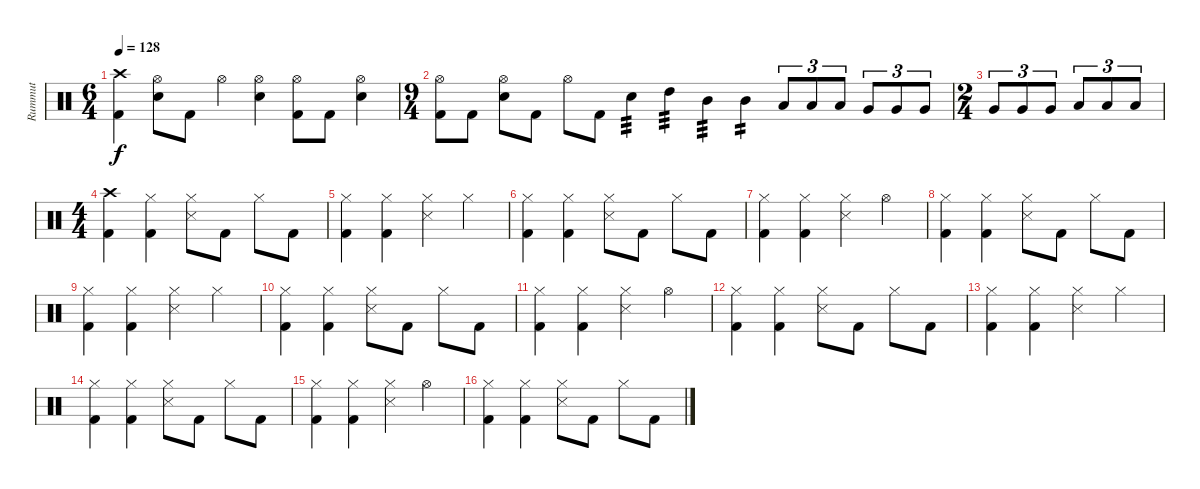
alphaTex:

\track ("Rummut" "Rummut") {instrument percussion}
\staff {score}
\articulation defaults
\ts (6 4)
\tempo 128
\clef neutral
\ks aminor
("Crash high (hit)" "Kick (hit) 2").4{dy f} ("Hi-Hat (open)" "Electric Snare (hit)").8 "Kick (hit) 2".8 "Hi-Hat (open)".4 ("Hi-Hat (open)" "Electric Snare (hit)").4 ("Hi-Hat (open)" "Kick (hit) 2").8 "Kick (hit) 2".8 ("Hi-Hat (open)" "Electric Snare (hit)").4 |
\ts (9 4)
("Hi-Hat (open)" "Kick (hit) 2").8 "Kick (hit) 2".8 ("Hi-Hat (open)" "Electric Snare (hit)").8 "Kick (hit) 2".8 "Hi-Hat (open)".8 "Kick (hit) 2".8 "Electric Snare (hit)".4{tp 3} "High Tom (hit)".4{tp 3} "Mid Tom (hit)".4{tp 3} "Mid Tom (hit)".4{tp 2} "Low Tom (hit)".8{tu (3 2)} "Low Tom (hit)".8{tu (3 2)} "Low Tom (hit)".8{tu (3 2)} "Very Low Tom (hit)".8{tu (3 2)} "Very Low Tom (hit)".8{tu (3 2)} "Very Low Tom (hit)".8{tu (3 2)} |
\ts (2 4)
"Very Low Tom (hit)".8{tu (3 2)} "Very Low Tom (hit)".8{tu (3 2)} "Very Low Tom (hit)".8{tu (3 2)} "Low Floor Tom (hit)".8{tu (3 2)} "Low Floor Tom (hit)".8{tu (3 2)} "Low Floor Tom (hit)".8{tu (3 2)} |
\ts (4 4)
("Crash high (hit)" "Kick (hit) 2").4 ("Hi-Hat (closed)" "Kick (hit) 2").4 ("Hi-Hat (closed)" "Snare (side stick) 3").8 "Kick (hit) 2".8 "Hi-Hat (closed)".8 "Kick (hit) 2".8 |
("Hi-Hat (closed)" "Kick (hit) 2").4 ("Hi-Hat (closed)" "Kick (hit) 2").4 ("Hi-Hat (closed)" "Snare (side stick) 3").4 "Hi-Hat (closed)".4 |
("Hi-Hat (closed)" "Kick (hit) 2").4 ("Hi-Hat (closed)" "Kick (hit) 2").4 ("Hi-Hat (closed)" "Snare (side stick) 3").8 "Kick (hit) 2".8 "Hi-Hat (closed)".8 "Kick (hit) 2".8 |
("Hi-Hat (closed)" "Kick (hit) 2").4 ("Hi-Hat (closed)" "Kick (hit) 2").4 ("Hi-Hat (closed)" "Snare (side stick) 3").4 "Hi-Hat (open)".4 |
("Hi-Hat (closed)" "Kick (hit) 2").4 ("Hi-Hat (closed)" "Kick (hit) 2").4 ("Hi-Hat (closed)" "Snare (side stick) 3").8 "Kick (hit) 2".8 "Hi-Hat (closed)".8 "Kick (hit) 2".8 |
("Hi-Hat (closed)" "Kick (hit) 2").4 ("Hi-Hat (closed)" "Kick (hit) 2").4 ("Hi-Hat (closed)" "Snare (side stick) 3").4 "Hi-Hat (closed)".4 |
("Hi-Hat (closed)" "Kick (hit) 2").4 ("Hi-Hat (closed)" "Kick (hit) 2").4 ("Hi-Hat (closed)" "Snare (side stick) 3").8 "Kick (hit) 2".8 "Hi-Hat (closed)".8 "Kick (hit) 2".8 |
("Hi-Hat (closed)" "Kick (hit) 2").4 ("Hi-Hat (closed)" "Kick (hit) 2").4 ("Hi-Hat (closed)" "Snare (side stick) 3").4 "Hi-Hat (open)".4 |
("Hi-Hat (closed)" "Kick (hit) 2").4 ("Hi-Hat (closed)" "Kick (hit) 2").4 ("Hi-Hat (closed)" "Snare (side stick) 3").8 "Kick (hit) 2".8 "Hi-Hat (closed)".8 "Kick (hit) 2".8 |
("Hi-Hat (closed)" "Kick (hit) 2").4 ("Hi-Hat (closed)" "Kick (hit) 2").4 ("Hi-Hat (closed)" "Snare (side stick) 3").4 "Hi-Hat (closed)".4 |
("Hi-Hat (closed)" "Kick (hit) 2").4 ("Hi-Hat (closed)" "Kick (hit) 2").4 ("Hi-Hat (closed)" "Snare (side stick) 3").8 "Kick (hit) 2".8 "Hi-Hat (closed)".8 "Kick (hit) 2".8 |
("Hi-Hat (closed)" "Kick (hit) 2").4 ("Hi-Hat (closed)" "Kick (hit) 2").4 ("Hi-Hat (closed)" "Snare (side stick) 3").4 "Hi-Hat (open)".4 |
("Hi-Hat (closed)" "Kick (hit) 2").4 ("Hi-Hat (closed)" "Kick (hit) 2").4 ("Hi-Hat (closed)" "Snare (side stick) 3").8 "Kick (hit) 2".8 "Hi-Hat (closed)".8 "Kick (hit) 2".8
